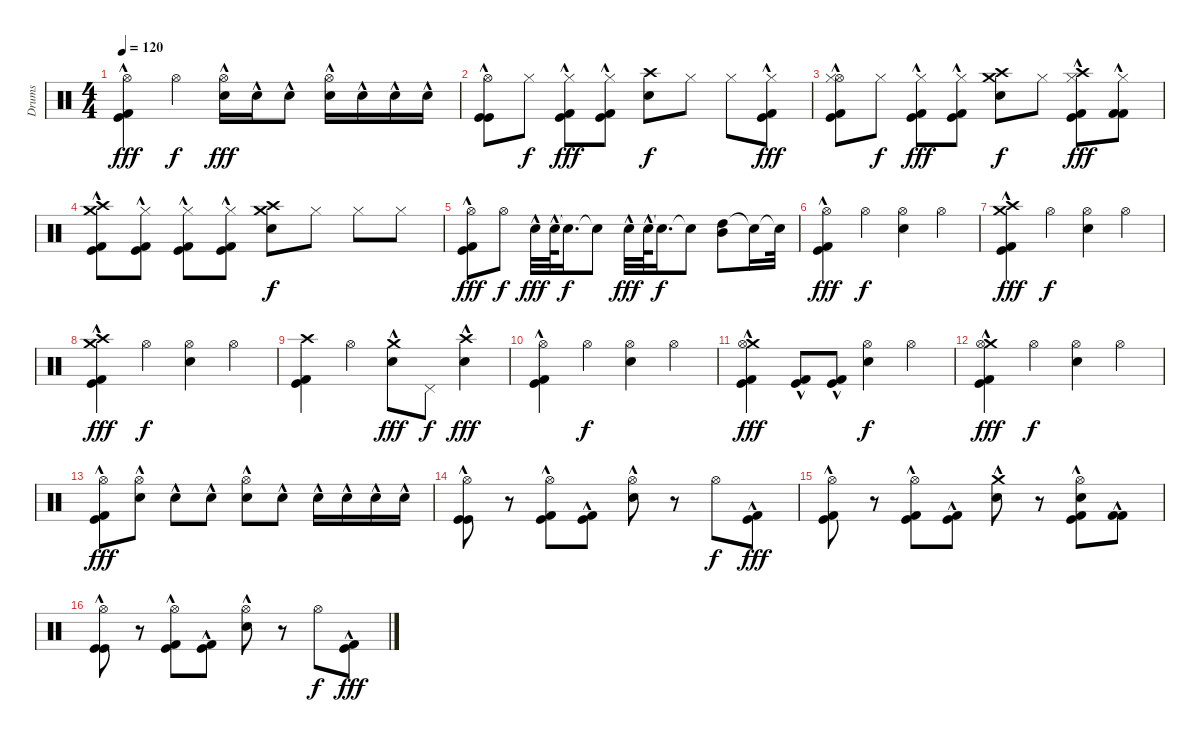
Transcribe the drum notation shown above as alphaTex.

\track ("Drums" "Drums") {instrument percussion}
\staff {score}
\articulation defaults
\ts (4 4)
\tempo 120
\clef neutral
\ks c
("Hi-Hat (open)" "Kick (hit) 2"{hac} "Kick (hit)"{hac}).4{dy fff} "Hi-Hat (open)".4{dy f} ("Hi-Hat (open)" "Snare (hit) 2"{hac}).16{dy fff} "Snare (hit) 2"{hac}.16 "Snare (hit) 2"{hac}.8 ("Hi-Hat (open)" "Snare (hit) 2"{hac}).16 "Snare (hit) 2"{hac}.16 "Snare (hit) 2"{hac}.16 "Snare (hit) 2"{hac}.16 |
("Hi-Hat (open)" "Kick (hit)" "Kick (hit)"{hac}).8 "Hi-Hat (closed)".8{dy f} ("Hi-Hat (closed)" "Kick (hit) 2" "Kick (hit)"{hac}).8{dy fff} ("Hi-Hat (closed)" "Kick (hit) 2" "Kick (hit)"{hac}).8 ("Crash high (hit)" "Snare (hit) 2").8{dy f} "Hi-Hat (closed)".8 "Hi-Hat (closed)".8 ("Hi-Hat (closed)" "Kick (hit) 2" "Kick (hit)"{hac}).8{dy fff} |
("Hi-Hat (open)" "Hi-Hat (closed)" "Kick (hit) 2" "Kick (hit)"{hac}).8 "Hi-Hat (closed)".8{dy f} ("Hi-Hat (closed)" "Kick (hit) 2" "Kick (hit)"{hac}).8{dy fff} ("Hi-Hat (closed)" "Kick (hit) 2" "Kick (hit)"{hac}).8 ("Crash medium (hit)" "Crash high (hit)" "Snare (hit) 2").8{dy f} "Hi-Hat (closed)".8 ("Crash high (hit)" "Hi-Hat (closed)" "Kick (hit) 2" "Kick (hit)"{hac}).8{dy fff} ("Hi-Hat (closed)" "Kick (hit) 2" "Kick (hit) 2"{hac}).8 |
("Crash medium (hit)" "Crash high (hit)" "Kick (hit) 2" "Kick (hit)"{hac}).8 ("Hi-Hat (closed)" "Kick (hit) 2" "Kick (hit)"{hac}).8 ("Hi-Hat (closed)" "Kick (hit) 2" "Kick (hit)"{hac}).8 ("Hi-Hat (closed)" "Kick (hit) 2" "Kick (hit)"{hac}).8 ("Crash medium (hit)" "Crash high (hit)" "Snare (hit) 2").8{dy f} "Hi-Hat (closed)".8 "Hi-Hat (closed)".8 "Hi-Hat (closed)".8 |
("Hi-Hat (open)" "Kick (hit) 2"{hac} "Kick (hit)"{hac}).8{dy fff} "Hi-Hat (open)".8{dy f} "Electric Snare (hit)"{hac}.32{dy fff} "Electric Snare (hit)"{hac}.64 "Electric Snare (hit)"{t}.16{d dy f} "Snare (hit)"{t}.8 "Electric Snare (hit)"{hac}.32{dy fff} "Electric Snare (hit)"{hac}.64 "Electric Snare (hit)"{t}.16{d dy f} "Snare (hit)"{t}.8 ("High Tom (hit)" "Mid Tom (hit)").8 "Snare (hit)"{t}.16 "Snare (hit)"{t}.32 |
("Hi-Hat (open)" "Kick (hit) 2"{hac} "Kick (hit)"{hac}).4{dy fff} "Hi-Hat (open)".4{dy f} ("Hi-Hat (open)" "Snare (hit) 2").4 "Hi-Hat (open)".4 |
("Crash medium (hit)" "Crash high (hit)" "Kick (hit) 2"{hac} "Kick (hit)"{hac}).4{dy fff} "Hi-Hat (open)".4{dy f} ("Hi-Hat (open)" "Snare (hit) 2").4 "Hi-Hat (open)".4 |
("Crash medium (hit)" "Crash high (hit)" "Kick (hit) 2"{hac} "Kick (hit)"{hac}).4{dy fff} "Hi-Hat (open)".4{dy f} ("Hi-Hat (open)" "Snare (hit) 2").4 "Hi-Hat (open)".4 |
("Crash high (hit)" "Kick (hit) 2" "Kick (hit)").4 "Hi-Hat (open)".4 ("Crash medium (hit)" "Snare (hit) 2"{hac}).8{dy fff} "Pedal Hi-Hat (hit)".8{dy f} ("Crash high (hit)" "Snare (hit) 2"{hac}).4{dy fff} |
("Hi-Hat (open)" "Kick (hit) 2"{hac} "Kick (hit)"{hac}).4 "Hi-Hat (open)".4{dy f} ("Hi-Hat (open)" "Snare (hit) 2").4 "Hi-Hat (open)".4 |
("Crash medium (hit)" "Hi-Hat (open)" "Kick (hit) 2"{hac} "Kick (hit)"{hac}).4{dy fff} ("Kick (hit) 2"{hac} "Kick (hit)"{hac}).8 ("Kick (hit) 2"{hac} "Kick (hit)"{hac}).8 ("Hi-Hat (open)" "Snare (hit) 2").4{dy f} "Hi-Hat (open)".4 |
("Crash medium (hit)" "Hi-Hat (open)" "Kick (hit) 2"{hac} "Kick (hit)"{hac}).4{dy fff} "Hi-Hat (open)".4{dy f} ("Hi-Hat (open)" "Snare (hit) 2").4 "Hi-Hat (open)".4 |
("Hi-Hat (open)" "Kick (hit) 2"{hac} "Kick (hit)"{hac}).8{dy fff} ("Hi-Hat (open)" "Snare (hit) 2"{hac}).8 "Snare (hit) 2"{hac}.8 "Snare (hit) 2"{hac}.8 ("Hi-Hat (open)" "Snare (hit) 2"{hac}).8 "Snare (hit) 2"{hac}.8 "Snare (hit) 2"{hac}.16 "Snare (hit) 2"{hac}.16 "Snare (hit) 2"{hac}.16 "Snare (hit) 2"{hac}.16 |
("Hi-Hat (open)" "Kick (hit)" "Kick (hit)"{hac}).8 r.8 ("Hi-Hat (open)" "Kick (hit) 2" "Kick (hit)"{hac}).8 ("Kick (hit) 2" "Kick (hit)"{hac}).8 ("Hi-Hat (open)" "Snare (hit) 2"{hac}).8 r.8 "Hi-Hat (open)".8{dy f} ("Kick (hit) 2" "Kick (hit)"{hac}).8{dy fff} |
("Hi-Hat (open)" "Kick (hit) 2" "Kick (hit)"{hac}).8 r.8 ("Hi-Hat (open)" "Kick (hit) 2" "Kick (hit)"{hac}).8 ("Kick (hit) 2" "Kick (hit)"{hac}).8 ("Crash medium (hit)" "Snare (hit) 2"{hac}).8 r.8 ("Hi-Hat (open)" "Snare (hit) 2"{hac} "Kick (hit) 2" "Kick (hit)"{hac}).8 ("Kick (hit) 2" "Kick (hit) 2"{hac}).8 |
("Hi-Hat (open)" "Kick (hit)" "Kick (hit)"{hac}).8 r.8 ("Hi-Hat (open)" "Kick (hit) 2" "Kick (hit)"{hac}).8 ("Kick (hit) 2" "Kick (hit)"{hac}).8 ("Hi-Hat (open)" "Snare (hit) 2"{hac}).8 r.8 "Hi-Hat (open)".8{dy f} ("Kick (hit) 2" "Kick (hit)"{hac}).8{dy fff}
